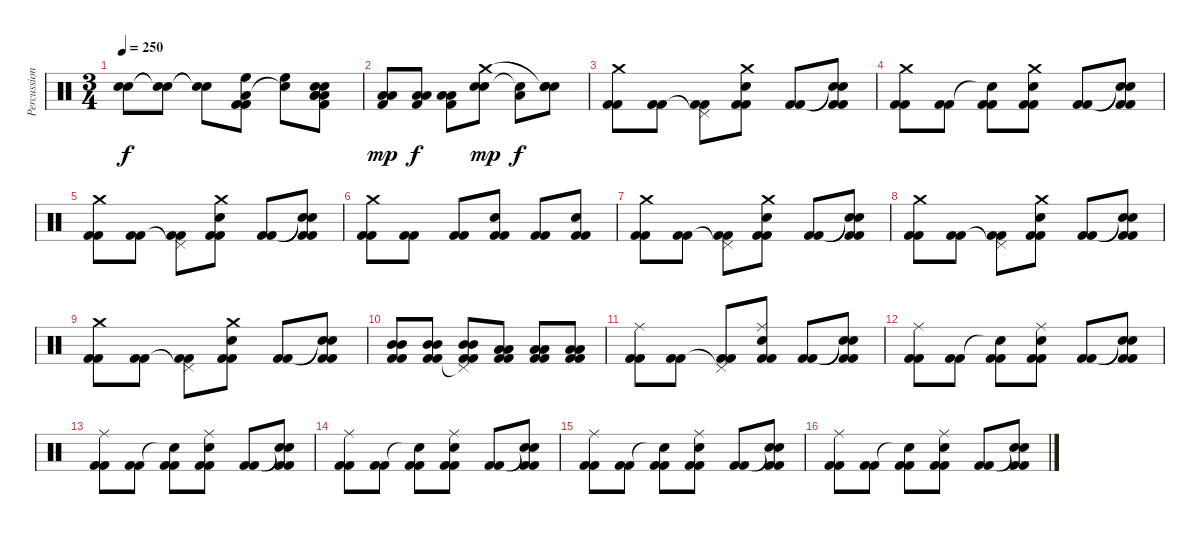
\track ("Percussion" "Percussion") {instrument percussion}
\staff {score}
\articulation defaults
\ts (3 4)
\tempo 250
\clef neutral
\ks c
("Snare (hit) 2" "Snare (hit) 2").8{dy f} ("Snare (hit)"{t} "Snare (hit)"{t}).8 ("Snare (hit)"{t} "Snare (hit) 2"{t}).8 ("High Floor Tom (hit)" "Low Tom (hit)" "Kick (hit) 2" "Kick (hit) 2").8 ("High Floor Tom (hit)" "Snare (hit)"{t}).8 ("Snare (hit) 2" "Low Tom (hit)" "Low Tom (hit)" "Low Tom (hit)" "Snare (hit)" "Kick (hit) 2").8 |
("Low Floor Tom (hit)" "Low Tom (hit)" "Kick (hit) 2").8{dy mp} ("Low Floor Tom (hit)" "Low Tom (hit)" "Kick (hit) 2").8{dy f} ("Low Floor Tom (hit)" "Low Tom (hit)" "Kick (hit) 2").8 ("Snare (hit) 2" "Snare (hit) 2" "Crash medium (hit)").8{dy mp} ("Low Tom (hit)" "Snare (hit)"{t}).8{dy f} ("Snare (hit) 2" "Snare (hit) 2" "Snare (hit)"{t}).8 |
("Crash medium (hit)" "Kick (hit) 2" "Kick (hit) 2").8 ("Kick (hit) 2" "Kick (hit) 2").8 ("Pedal Hi-Hat (hit)"{t} "Kick (hit) 2" "Kick (hit) 2").8 ("Snare (hit) 2" "Crash medium (hit)" "Kick (hit) 2" "Kick (hit) 2").8 ("Kick (hit) 2" "Kick (hit) 2").8 ("Snare (hit)"{t} "Snare (hit)"{t} "Kick (hit) 2" "Kick (hit) 2").8 |
("Crash medium (hit)" "Kick (hit) 2" "Kick (hit) 2").8 ("Kick (hit) 2" "Kick (hit) 2").8 ("Snare (hit)"{t} "Kick (hit) 2" "Kick (hit) 2").8 ("Snare (hit) 2" "Crash medium (hit)" "Kick (hit) 2" "Kick (hit) 2").8 ("Kick (hit) 2" "Kick (hit) 2").8 ("Snare (hit)"{t} "Snare (hit)"{t} "Kick (hit) 2" "Kick (hit) 2").8 |
("Crash medium (hit)" "Kick (hit) 2" "Kick (hit) 2").8 ("Kick (hit) 2" "Kick (hit) 2").8 ("Pedal Hi-Hat (hit)"{t} "Kick (hit) 2" "Kick (hit) 2").8 ("Snare (hit) 2" "Crash medium (hit)" "Kick (hit) 2" "Kick (hit) 2").8 ("Kick (hit) 2" "Kick (hit) 2").8 ("Snare (hit)"{t} "Snare (hit)"{t} "Kick (hit) 2" "Kick (hit) 2").8 |
("Crash medium (hit)" "Kick (hit) 2" "Kick (hit) 2").8 ("Kick (hit) 2" "Kick (hit) 2").8 ("Kick (hit) 2" "Kick (hit) 2").8 ("Snare (hit) 2" "Kick (hit) 2" "Kick (hit) 2").8 ("Kick (hit) 2" "Kick (hit) 2").8 ("Snare (hit) 2" "Kick (hit) 2" "Kick (hit) 2").8 |
("Crash medium (hit)" "Kick (hit) 2" "Kick (hit) 2").8 ("Kick (hit) 2" "Kick (hit) 2").8 ("Pedal Hi-Hat (hit)"{t} "Kick (hit) 2" "Kick (hit) 2").8 ("Snare (hit) 2" "Crash medium (hit)" "Kick (hit) 2" "Kick (hit) 2").8 ("Kick (hit) 2" "Kick (hit) 2").8 ("Snare (hit)"{t} "Snare (hit)"{t} "Kick (hit) 2" "Kick (hit) 2").8 |
("Crash medium (hit)" "Kick (hit) 2" "Kick (hit) 2").8 ("Kick (hit) 2" "Kick (hit) 2").8 ("Pedal Hi-Hat (hit)"{t} "Kick (hit) 2" "Kick (hit) 2").8 ("Snare (hit) 2" "Crash medium (hit)" "Kick (hit) 2" "Kick (hit) 2").8 ("Kick (hit) 2" "Kick (hit) 2").8 ("Snare (hit)"{t} "Snare (hit)"{t} "Kick (hit) 2" "Kick (hit) 2").8 |
("Crash medium (hit)" "Kick (hit) 2" "Kick (hit) 2").8 ("Kick (hit) 2" "Kick (hit) 2").8 ("Pedal Hi-Hat (hit)"{t} "Kick (hit) 2" "Kick (hit) 2").8 ("Snare (hit) 2" "Crash medium (hit)" "Kick (hit) 2" "Kick (hit) 2").8 ("Kick (hit) 2" "Kick (hit) 2").8 ("Snare (hit)"{t} "Snare (hit)"{t} "Kick (hit) 2" "Kick (hit) 2").8 |
("Mid Tom (hit)" "Mid Tom (hit)" "Kick (hit) 2" "Kick (hit) 2").8 ("Mid Tom (hit)" "Mid Tom (hit)" "Kick (hit) 2" "Kick (hit) 2").8 ("Mid Tom (hit)" "Mid Tom (hit)" "Pedal Hi-Hat (hit)"{t} "Kick (hit) 2" "Kick (hit) 2").8 ("Low Floor Tom (hit)" "Low Floor Tom (hit)" "Kick (hit) 2" "Kick (hit) 2").8 ("Low Floor Tom (hit)" "Low Floor Tom (hit)" "Kick (hit) 2" "Kick (hit) 2").8 ("Low Floor Tom (hit)" "Low Floor Tom (hit)" "Kick (hit) 2" "Kick (hit) 2").8 |
("Ride (middle)" "Kick (hit) 2" "Kick (hit) 2").8 ("Kick (hit) 2" "Kick (hit) 2").8 ("Pedal Hi-Hat (hit)"{t} "Kick (hit) 2" "Kick (hit) 2").8 ("Snare (hit) 2" "Ride (middle)" "Kick (hit) 2" "Kick (hit) 2").8 ("Kick (hit) 2" "Kick (hit) 2").8 ("Snare (hit)"{t} "Snare (hit)"{t} "Kick (hit) 2" "Kick (hit) 2").8 |
("Ride (middle)" "Kick (hit) 2" "Kick (hit) 2").8 ("Kick (hit) 2" "Kick (hit) 2").8 ("Snare (hit)"{t} "Kick (hit) 2" "Kick (hit) 2").8 ("Snare (hit) 2" "Ride (middle)" "Kick (hit) 2" "Kick (hit) 2").8 ("Kick (hit) 2" "Kick (hit) 2").8 ("Snare (hit)"{t} "Snare (hit)"{t} "Kick (hit) 2" "Kick (hit) 2").8 |
("Ride (middle)" "Kick (hit) 2" "Kick (hit) 2").8 ("Kick (hit) 2" "Kick (hit) 2").8 ("Snare (hit)"{t} "Kick (hit) 2" "Kick (hit) 2").8 ("Snare (hit) 2" "Ride (middle)" "Kick (hit) 2" "Kick (hit) 2").8 ("Kick (hit) 2" "Kick (hit) 2").8 ("Snare (hit)"{t} "Snare (hit)"{t} "Kick (hit) 2" "Kick (hit) 2").8 |
("Ride (middle)" "Kick (hit) 2" "Kick (hit) 2").8 ("Kick (hit) 2" "Kick (hit) 2").8 ("Snare (hit)"{t} "Kick (hit) 2" "Kick (hit) 2").8 ("Snare (hit) 2" "Ride (middle)" "Kick (hit) 2" "Kick (hit) 2").8 ("Kick (hit) 2" "Kick (hit) 2").8 ("Snare (hit)"{t} "Snare (hit)"{t} "Kick (hit) 2" "Kick (hit) 2").8 |
("Ride (middle)" "Kick (hit) 2" "Kick (hit) 2").8 ("Kick (hit) 2" "Kick (hit) 2").8 ("Snare (hit)"{t} "Kick (hit) 2" "Kick (hit) 2").8 ("Snare (hit) 2" "Ride (middle)" "Kick (hit) 2" "Kick (hit) 2").8 ("Kick (hit) 2" "Kick (hit) 2").8 ("Snare (hit)"{t} "Snare (hit)"{t} "Kick (hit) 2" "Kick (hit) 2").8 |
("Ride (middle)" "Kick (hit) 2" "Kick (hit) 2").8 ("Kick (hit) 2" "Kick (hit) 2").8 ("Snare (hit)"{t} "Kick (hit) 2" "Kick (hit) 2").8 ("Snare (hit) 2" "Ride (middle)" "Kick (hit) 2" "Kick (hit) 2").8 ("Kick (hit) 2" "Kick (hit) 2").8 ("Snare (hit)"{t} "Snare (hit)"{t} "Kick (hit) 2" "Kick (hit) 2").8
